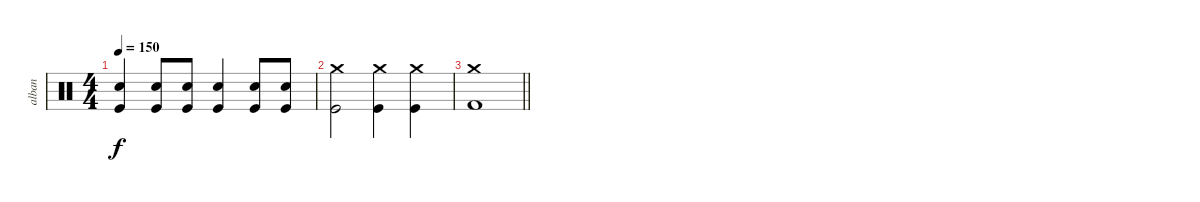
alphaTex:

\track ("alban" "alban") {instrument percussion}
\staff {score}
\articulation defaults
\ts (4 4)
\tempo 150
\clef neutral
\ks c
("Kick (hit)" "Snare (hit) 2").4{dy f} ("Kick (hit)" "Snare (hit) 2").8 ("Kick (hit)" "Snare (hit) 2").8 ("Kick (hit)" "Snare (hit) 2").4 ("Kick (hit)" "Snare (hit) 2").8 ("Kick (hit)" "Snare (hit) 2").8 |
("Crash medium (hit)" "Kick (hit)").2 ("Crash medium (hit)" "Kick (hit)").4 ("Crash medium (hit)" "Kick (hit)").4 |
\barLineRight lightlight
("Crash medium (hit)" "Kick (hit) 2").1
